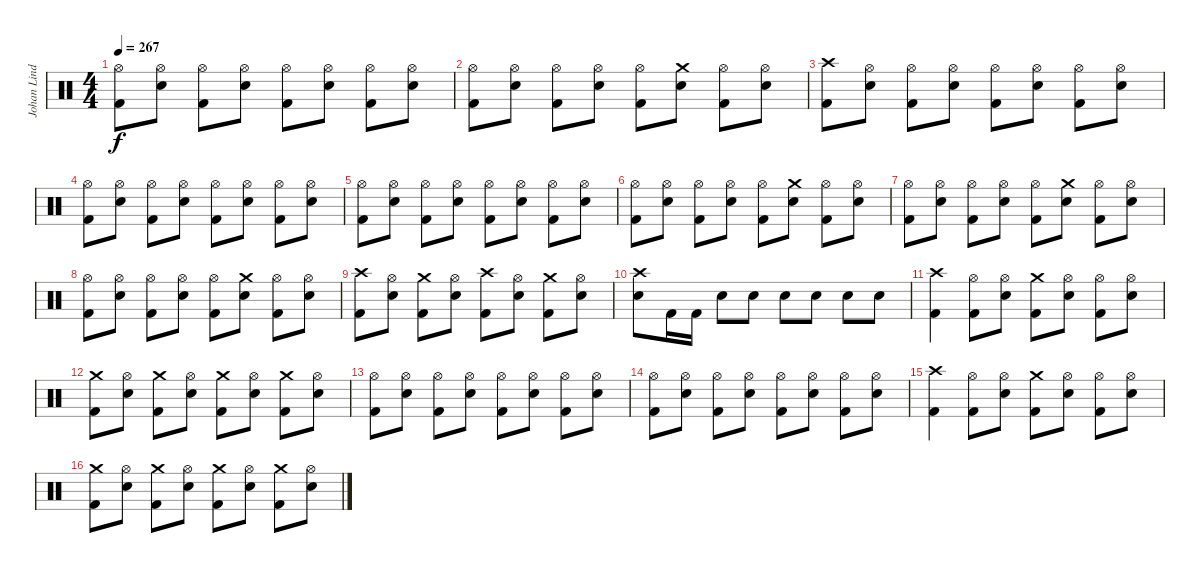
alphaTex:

\track ("Johan Lindstrand" "Johan Lind") {instrument percussion}
\staff {score}
\articulation defaults
\ts (4 4)
\tempo 267
\clef neutral
\ks c
("Hi-Hat (open)" "Kick (hit) 2").8{dy f} ("Hi-Hat (open)" "Electric Snare (hit)").8 ("Hi-Hat (open)" "Kick (hit) 2").8 ("Hi-Hat (open)" "Electric Snare (hit)").8 ("Hi-Hat (open)" "Kick (hit) 2").8 ("Hi-Hat (open)" "Electric Snare (hit)").8 ("Hi-Hat (open)" "Kick (hit) 2").8 ("Hi-Hat (open)" "Electric Snare (hit)").8 |
("Hi-Hat (open)" "Kick (hit) 2").8 ("Hi-Hat (open)" "Electric Snare (hit)").8 ("Hi-Hat (open)" "Kick (hit) 2").8 ("Hi-Hat (open)" "Electric Snare (hit)").8 ("Hi-Hat (open)" "Kick (hit) 2").8 ("Crash medium (hit)" "Electric Snare (hit)").8 ("Hi-Hat (open)" "Kick (hit) 2").8 ("Hi-Hat (open)" "Electric Snare (hit)").8 |
("Crash high (hit)" "Kick (hit) 2").8 ("Hi-Hat (open)" "Electric Snare (hit)").8 ("Hi-Hat (open)" "Kick (hit) 2").8 ("Hi-Hat (open)" "Electric Snare (hit)").8 ("Hi-Hat (open)" "Kick (hit) 2").8 ("Hi-Hat (open)" "Electric Snare (hit)").8 ("Hi-Hat (open)" "Kick (hit) 2").8 ("Hi-Hat (open)" "Electric Snare (hit)").8 |
("Hi-Hat (open)" "Kick (hit) 2").8 ("Hi-Hat (open)" "Electric Snare (hit)").8 ("Hi-Hat (open)" "Kick (hit) 2").8 ("Hi-Hat (open)" "Electric Snare (hit)").8 ("Hi-Hat (open)" "Kick (hit) 2").8 ("Hi-Hat (open)" "Electric Snare (hit)").8 ("Hi-Hat (open)" "Kick (hit) 2").8 ("Hi-Hat (open)" "Electric Snare (hit)").8 |
("Hi-Hat (open)" "Kick (hit) 2").8 ("Hi-Hat (open)" "Electric Snare (hit)").8 ("Hi-Hat (open)" "Kick (hit) 2").8 ("Hi-Hat (open)" "Electric Snare (hit)").8 ("Hi-Hat (open)" "Kick (hit) 2").8 ("Hi-Hat (open)" "Electric Snare (hit)").8 ("Hi-Hat (open)" "Kick (hit) 2").8 ("Hi-Hat (open)" "Electric Snare (hit)").8 |
("Hi-Hat (open)" "Kick (hit) 2").8 ("Hi-Hat (open)" "Electric Snare (hit)").8 ("Hi-Hat (open)" "Kick (hit) 2").8 ("Hi-Hat (open)" "Electric Snare (hit)").8 ("Hi-Hat (open)" "Kick (hit) 2").8 ("Crash medium (hit)" "Electric Snare (hit)").8 ("Hi-Hat (open)" "Kick (hit) 2").8 ("Hi-Hat (open)" "Electric Snare (hit)").8 |
("Hi-Hat (open)" "Kick (hit) 2").8 ("Hi-Hat (open)" "Electric Snare (hit)").8 ("Hi-Hat (open)" "Kick (hit) 2").8 ("Hi-Hat (open)" "Electric Snare (hit)").8 ("Hi-Hat (open)" "Kick (hit) 2").8 ("Crash medium (hit)" "Electric Snare (hit)").8 ("Hi-Hat (open)" "Kick (hit) 2").8 ("Hi-Hat (open)" "Electric Snare (hit)").8 |
("Hi-Hat (open)" "Kick (hit) 2").8 ("Hi-Hat (open)" "Electric Snare (hit)").8 ("Hi-Hat (open)" "Kick (hit) 2").8 ("Hi-Hat (open)" "Electric Snare (hit)").8 ("Hi-Hat (open)" "Kick (hit) 2").8 ("Crash medium (hit)" "Electric Snare (hit)").8 ("Hi-Hat (open)" "Kick (hit) 2").8 ("Hi-Hat (open)" "Electric Snare (hit)").8 |
("Crash high (hit)" "Kick (hit) 2").8 ("Hi-Hat (open)" "Electric Snare (hit)").8 ("Crash medium (hit)" "Kick (hit) 2").8 ("Hi-Hat (open)" "Electric Snare (hit)").8 ("Crash high (hit)" "Kick (hit) 2").8 ("Hi-Hat (open)" "Electric Snare (hit)").8 ("Crash medium (hit)" "Kick (hit) 2").8 ("Hi-Hat (open)" "Electric Snare (hit)").8 |
("Crash high (hit)" "Electric Snare (hit)").8 "Kick (hit) 2".16 "Kick (hit) 2".16 "Electric Snare (hit)".8 "Electric Snare (hit)".8 "Electric Snare (hit)".8 "Electric Snare (hit)".8 "Electric Snare (hit)".8 "Electric Snare (hit)".8 |
("Crash high (hit)" "Kick (hit) 2").4 ("Hi-Hat (open)" "Kick (hit) 2").8 ("Hi-Hat (open)" "Electric Snare (hit)").8 ("Crash medium (hit)" "Kick (hit) 2").8 ("Hi-Hat (open)" "Electric Snare (hit)").8 ("Hi-Hat (open)" "Kick (hit) 2").8 ("Hi-Hat (open)" "Electric Snare (hit)").8 |
("Crash medium (hit)" "Kick (hit) 2").8 ("Hi-Hat (open)" "Electric Snare (hit)").8 ("Crash medium (hit)" "Kick (hit) 2").8 ("Hi-Hat (open)" "Electric Snare (hit)").8 ("Crash medium (hit)" "Kick (hit) 2").8 ("Hi-Hat (open)" "Electric Snare (hit)").8 ("Crash medium (hit)" "Kick (hit) 2").8 ("Hi-Hat (open)" "Electric Snare (hit)").8 |
("Hi-Hat (open)" "Kick (hit) 2").8 ("Hi-Hat (open)" "Electric Snare (hit)").8 ("Hi-Hat (open)" "Kick (hit) 2").8 ("Hi-Hat (open)" "Electric Snare (hit)").8 ("Hi-Hat (open)" "Kick (hit) 2").8 ("Hi-Hat (open)" "Electric Snare (hit)").8 ("Hi-Hat (open)" "Kick (hit) 2").8 ("Hi-Hat (open)" "Electric Snare (hit)").8 |
("Hi-Hat (open)" "Kick (hit) 2").8 ("Hi-Hat (open)" "Electric Snare (hit)").8 ("Hi-Hat (open)" "Kick (hit) 2").8 ("Hi-Hat (open)" "Electric Snare (hit)").8 ("Hi-Hat (open)" "Kick (hit) 2").8 ("Hi-Hat (open)" "Electric Snare (hit)").8 ("Hi-Hat (open)" "Kick (hit) 2").8 ("Hi-Hat (open)" "Electric Snare (hit)").8 |
("Crash high (hit)" "Kick (hit) 2").4 ("Hi-Hat (open)" "Kick (hit) 2").8 ("Hi-Hat (open)" "Electric Snare (hit)").8 ("Crash medium (hit)" "Kick (hit) 2").8 ("Hi-Hat (open)" "Electric Snare (hit)").8 ("Hi-Hat (open)" "Kick (hit) 2").8 ("Hi-Hat (open)" "Electric Snare (hit)").8 |
("Crash medium (hit)" "Kick (hit) 2").8 ("Hi-Hat (open)" "Electric Snare (hit)").8 ("Crash medium (hit)" "Kick (hit) 2").8 ("Hi-Hat (open)" "Electric Snare (hit)").8 ("Crash medium (hit)" "Kick (hit) 2").8 ("Hi-Hat (open)" "Electric Snare (hit)").8 ("Crash medium (hit)" "Kick (hit) 2").8 ("Hi-Hat (open)" "Electric Snare (hit)").8
